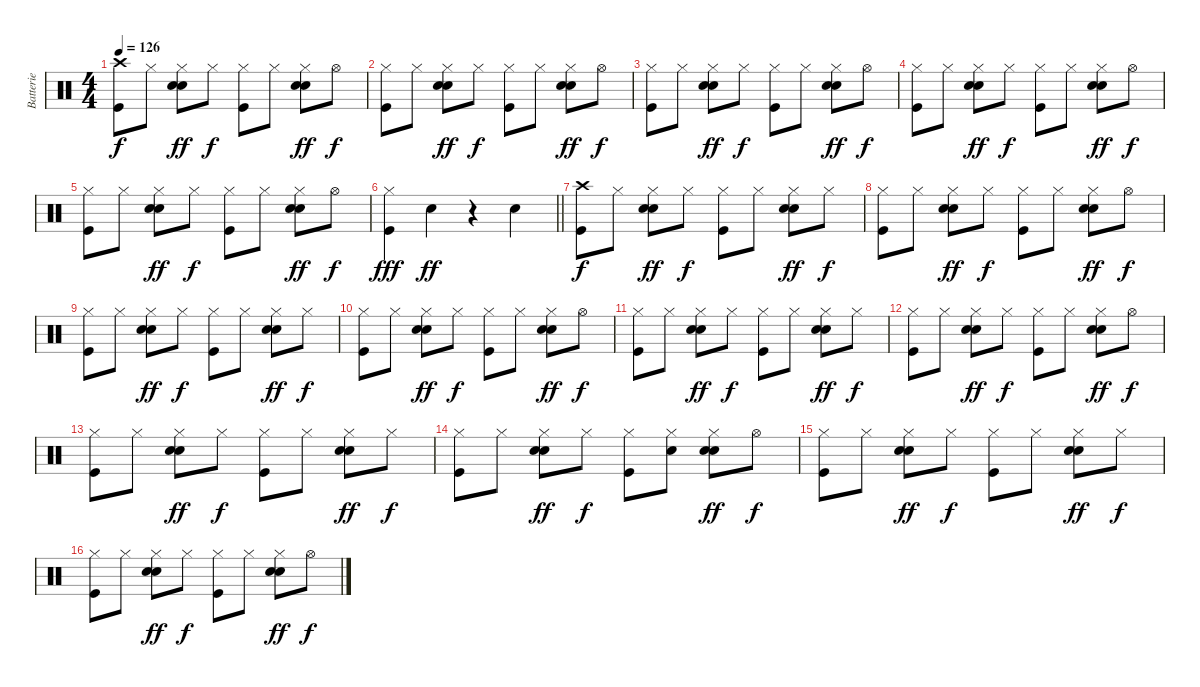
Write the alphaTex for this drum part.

\track ("Batterie" "Batterie") {instrument percussion}
\staff {score}
\articulation defaults
\ts (4 4)
\tempo 126
\clef neutral
\ks c
("Crash high (hit)" "Kick (hit)").8{dy f} "Hi-Hat (closed)".8 ("Hi-Hat (closed)" "Hand Clap (hit)" "Snare (hit) 2").8{dy ff} "Hi-Hat (closed)".8{dy f} ("Hi-Hat (closed)" "Kick (hit)").8 "Hi-Hat (closed)".8 ("Hi-Hat (closed)" "Hand Clap (hit)" "Snare (hit) 2").8{dy ff} "Hi-Hat (open)".8{dy f} |
("Hi-Hat (closed)" "Kick (hit)").8 "Hi-Hat (closed)".8 ("Hi-Hat (closed)" "Hand Clap (hit)" "Snare (hit) 2").8{dy ff} "Hi-Hat (closed)".8{dy f} ("Hi-Hat (closed)" "Kick (hit)").8 "Hi-Hat (closed)".8 ("Hi-Hat (closed)" "Hand Clap (hit)" "Snare (hit) 2").8{dy ff} "Hi-Hat (open)".8{dy f} |
("Hi-Hat (closed)" "Kick (hit)").8 "Hi-Hat (closed)".8 ("Hi-Hat (closed)" "Hand Clap (hit)" "Snare (hit) 2").8{dy ff} "Hi-Hat (closed)".8{dy f} ("Hi-Hat (closed)" "Kick (hit)").8 "Hi-Hat (closed)".8 ("Hi-Hat (closed)" "Hand Clap (hit)" "Snare (hit) 2").8{dy ff} "Hi-Hat (open)".8{dy f} |
("Hi-Hat (closed)" "Kick (hit)").8 "Hi-Hat (closed)".8 ("Hi-Hat (closed)" "Hand Clap (hit)" "Snare (hit) 2").8{dy ff} "Hi-Hat (closed)".8{dy f} ("Hi-Hat (closed)" "Kick (hit)").8 "Hi-Hat (closed)".8 ("Hi-Hat (closed)" "Hand Clap (hit)" "Snare (hit) 2").8{dy ff} "Hi-Hat (open)".8{dy f} |
("Hi-Hat (closed)" "Kick (hit)").8 "Hi-Hat (closed)".8 ("Hi-Hat (closed)" "Hand Clap (hit)" "Snare (hit) 2").8{dy ff} "Hi-Hat (closed)".8{dy f} ("Hi-Hat (closed)" "Kick (hit)").8 "Hi-Hat (closed)".8 ("Hi-Hat (closed)" "Hand Clap (hit)" "Snare (hit) 2").8{dy ff} "Hi-Hat (open)".8{dy f} |
\barLineRight lightlight
("Hi-Hat (closed)" "Kick (hit)").4{dy fff} "Hand Clap (hit)".4{dy ff} r.4 "Hand Clap (hit)".4 |
("Crash high (hit)" "Kick (hit)").8{dy f} "Hi-Hat (closed)".8 ("Hi-Hat (closed)" "Hand Clap (hit)" "Snare (hit) 2").8{dy ff} "Hi-Hat (closed)".8{dy f} ("Hi-Hat (closed)" "Kick (hit)").8 "Hi-Hat (closed)".8 ("Hi-Hat (closed)" "Hand Clap (hit)" "Snare (hit) 2").8{dy ff} "Hi-Hat (closed)".8{dy f} |
("Hi-Hat (closed)" "Kick (hit)").8 "Hi-Hat (closed)".8 ("Hi-Hat (closed)" "Hand Clap (hit)" "Snare (hit) 2").8{dy ff} "Hi-Hat (closed)".8{dy f} ("Hi-Hat (closed)" "Kick (hit)").8 "Hi-Hat (closed)".8 ("Hi-Hat (closed)" "Hand Clap (hit)" "Snare (hit) 2").8{dy ff} "Hi-Hat (open)".8{dy f} |
("Hi-Hat (closed)" "Kick (hit)").8 "Hi-Hat (closed)".8 ("Hi-Hat (closed)" "Hand Clap (hit)" "Snare (hit) 2").8{dy ff} "Hi-Hat (closed)".8{dy f} ("Hi-Hat (closed)" "Kick (hit)").8 "Hi-Hat (closed)".8 ("Hi-Hat (closed)" "Hand Clap (hit)" "Snare (hit) 2").8{dy ff} "Hi-Hat (closed)".8{dy f} |
("Hi-Hat (closed)" "Kick (hit)").8 "Hi-Hat (closed)".8 ("Hi-Hat (closed)" "Hand Clap (hit)" "Snare (hit) 2").8{dy ff} "Hi-Hat (closed)".8{dy f} ("Hi-Hat (closed)" "Kick (hit)").8 "Hi-Hat (closed)".8 ("Hi-Hat (closed)" "Hand Clap (hit)" "Snare (hit) 2").8{dy ff} "Hi-Hat (open)".8{dy f} |
("Hi-Hat (closed)" "Kick (hit)").8 "Hi-Hat (closed)".8 ("Hi-Hat (closed)" "Hand Clap (hit)" "Snare (hit) 2").8{dy ff} "Hi-Hat (closed)".8{dy f} ("Hi-Hat (closed)" "Kick (hit)").8 "Hi-Hat (closed)".8 ("Hi-Hat (closed)" "Hand Clap (hit)" "Snare (hit) 2").8{dy ff} "Hi-Hat (closed)".8{dy f} |
("Hi-Hat (closed)" "Kick (hit)").8 "Hi-Hat (closed)".8 ("Hi-Hat (closed)" "Hand Clap (hit)" "Snare (hit) 2").8{dy ff} "Hi-Hat (closed)".8{dy f} ("Hi-Hat (closed)" "Kick (hit)").8 "Hi-Hat (closed)".8 ("Hi-Hat (closed)" "Hand Clap (hit)" "Snare (hit) 2").8{dy ff} "Hi-Hat (open)".8{dy f} |
("Hi-Hat (closed)" "Kick (hit)").8 "Hi-Hat (closed)".8 ("Hi-Hat (closed)" "Hand Clap (hit)" "Snare (hit) 2").8{dy ff} "Hi-Hat (closed)".8{dy f} ("Hi-Hat (closed)" "Kick (hit)").8 "Hi-Hat (closed)".8 ("Hi-Hat (closed)" "Hand Clap (hit)" "Snare (hit) 2").8{dy ff} "Hi-Hat (closed)".8{dy f} |
("Hi-Hat (closed)" "Kick (hit)").8 "Hi-Hat (closed)".8 ("Hi-Hat (closed)" "Hand Clap (hit)" "Snare (hit) 2").8{dy ff} "Hi-Hat (closed)".8{dy f} ("Hi-Hat (closed)" "Kick (hit)").8 ("Hi-Hat (closed)" "Snare (hit) 2").8 ("Hi-Hat (closed)" "Hand Clap (hit)" "Snare (hit) 2").8{dy ff} "Hi-Hat (open)".8{dy f} |
("Hi-Hat (closed)" "Kick (hit)").8 "Hi-Hat (closed)".8 ("Hi-Hat (closed)" "Hand Clap (hit)" "Snare (hit) 2").8{dy ff} "Hi-Hat (closed)".8{dy f} ("Hi-Hat (closed)" "Kick (hit)").8 "Hi-Hat (closed)".8 ("Hi-Hat (closed)" "Hand Clap (hit)" "Snare (hit) 2").8{dy ff} "Hi-Hat (closed)".8{dy f} |
("Hi-Hat (closed)" "Kick (hit)").8 "Hi-Hat (closed)".8 ("Hi-Hat (closed)" "Hand Clap (hit)" "Snare (hit) 2").8{dy ff} "Hi-Hat (closed)".8{dy f} ("Hi-Hat (closed)" "Kick (hit)").8 "Hi-Hat (closed)".8 ("Hi-Hat (closed)" "Hand Clap (hit)" "Snare (hit) 2").8{dy ff} "Hi-Hat (open)".8{dy f}
